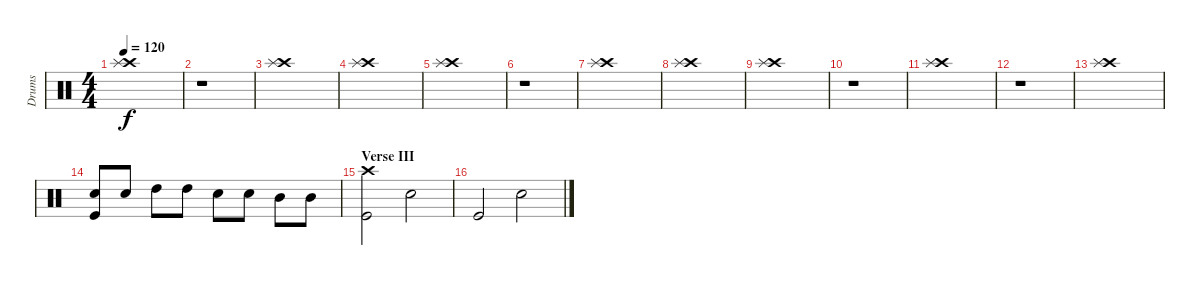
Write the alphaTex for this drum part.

\track ("Drums" "Drums") {instrument percussion}
\staff {score}
\articulation defaults
\ts (4 4)
\tempo 120
\clef neutral
\ks c
("Crash high (hit)" "Splash (hit)").1{dy f} |
r.1 |
("Crash high (hit)" "Splash (hit)").1 |
("Crash high (hit)" "Splash (hit)").1 |
("Crash high (hit)" "Splash (hit)").1 |
r.1 |
("Crash high (hit)" "Splash (hit)").1 |
("Crash high (hit)" "Splash (hit)").1 |
("Crash high (hit)" "Splash (hit)").1 |
r.1 |
("Crash high (hit)" "Splash (hit)").1 |
r.1 |
("Crash high (hit)" "Splash (hit)").1 |
("Snare (hit) 2" "Kick (hit)").8 "Snare (hit) 2".8 "High Tom (hit)".8 "High Tom (hit)".8 "Snare (hit) 2".8 "Snare (hit) 2".8 "Mid Tom (hit)".8 "Mid Tom (hit)".8 |
\section ("" "Verse III")
("Crash high (hit)" "Kick (hit)").2 "Snare (hit) 2".2 |
"Kick (hit)".2 "Snare (hit) 2".2
